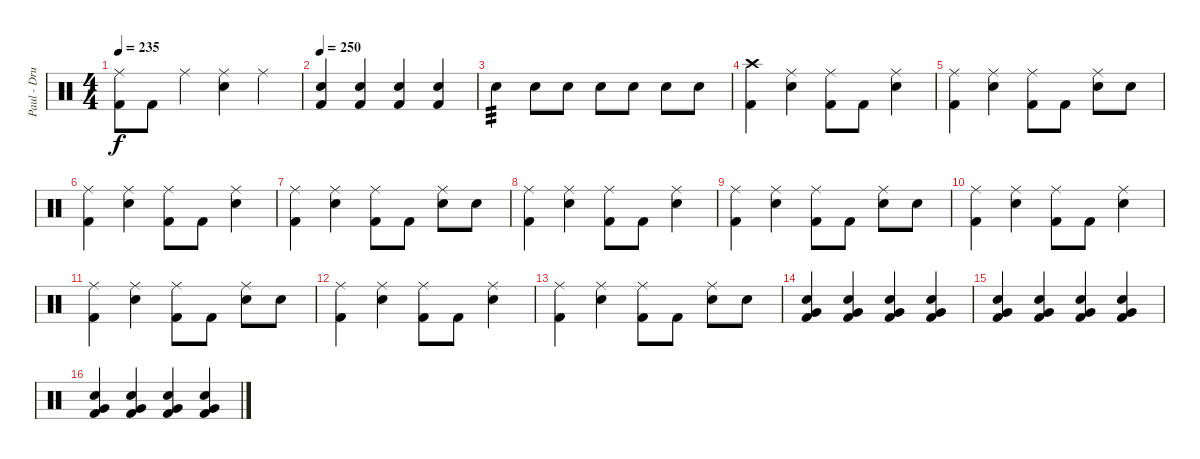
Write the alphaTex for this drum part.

\track ("Paul - Drums" "Paul - Dru") {instrument percussion}
\staff {score}
\articulation defaults
\ts (4 4)
\tempo 235
\clef neutral
\ks c
("Ride (middle)" "Kick (hit) 2").8{dy f} "Kick (hit) 2".8 "Ride (middle)".4 ("Ride (middle)" "Electric Snare (hit)").4 "Ride (middle)".4 |
\tempo 250
("Electric Snare (hit)" "Kick (hit) 2").4 ("Electric Snare (hit)" "Kick (hit) 2").4 ("Electric Snare (hit)" "Kick (hit) 2").4 ("Electric Snare (hit)" "Kick (hit) 2").4 |
"Electric Snare (hit)".4{tp 3} "Electric Snare (hit)".8 "Electric Snare (hit)".8 "Electric Snare (hit)".8 "Electric Snare (hit)".8 "Electric Snare (hit)".8 "Electric Snare (hit)".8 |
("Crash high (hit)" "Kick (hit) 2").4 ("Ride (middle)" "Electric Snare (hit)").4 ("Ride (middle)" "Kick (hit) 2").8 "Kick (hit) 2".8 ("Ride (middle)" "Electric Snare (hit)").4 |
("Ride (middle)" "Kick (hit) 2").4 ("Ride (middle)" "Electric Snare (hit)").4 ("Ride (middle)" "Kick (hit) 2").8 "Kick (hit) 2".8 ("Ride (middle)" "Electric Snare (hit)").8 "Electric Snare (hit)".8 |
("Ride (middle)" "Kick (hit) 2").4 ("Ride (middle)" "Electric Snare (hit)").4 ("Ride (middle)" "Kick (hit) 2").8 "Kick (hit) 2".8 ("Ride (middle)" "Electric Snare (hit)").4 |
("Ride (middle)" "Kick (hit) 2").4 ("Ride (middle)" "Electric Snare (hit)").4 ("Ride (middle)" "Kick (hit) 2").8 "Kick (hit) 2".8 ("Ride (middle)" "Electric Snare (hit)").8 "Electric Snare (hit)".8 |
("Ride (middle)" "Kick (hit) 2").4 ("Ride (middle)" "Electric Snare (hit)").4 ("Ride (middle)" "Kick (hit) 2").8 "Kick (hit) 2".8 ("Ride (middle)" "Electric Snare (hit)").4 |
("Ride (middle)" "Kick (hit) 2").4 ("Ride (middle)" "Electric Snare (hit)").4 ("Ride (middle)" "Kick (hit) 2").8 "Kick (hit) 2".8 ("Ride (middle)" "Electric Snare (hit)").8 "Electric Snare (hit)".8 |
("Ride (middle)" "Kick (hit) 2").4 ("Ride (middle)" "Electric Snare (hit)").4 ("Ride (middle)" "Kick (hit) 2").8 "Kick (hit) 2".8 ("Ride (middle)" "Electric Snare (hit)").4 |
("Ride (middle)" "Kick (hit) 2").4 ("Ride (middle)" "Electric Snare (hit)").4 ("Ride (middle)" "Kick (hit) 2").8 "Kick (hit) 2".8 ("Ride (middle)" "Electric Snare (hit)").8 "Electric Snare (hit)".8 |
("Ride (middle)" "Kick (hit) 2").4 ("Ride (middle)" "Electric Snare (hit)").4 ("Ride (middle)" "Kick (hit) 2").8 "Kick (hit) 2".8 ("Ride (middle)" "Electric Snare (hit)").4 |
("Ride (middle)" "Kick (hit) 2").4 ("Ride (middle)" "Electric Snare (hit)").4 ("Ride (middle)" "Kick (hit) 2").8 "Kick (hit) 2".8 ("Ride (middle)" "Electric Snare (hit)").8 "Electric Snare (hit)".8 |
("Very Low Tom (hit)" "Electric Snare (hit)" "Kick (hit) 2").4 ("Very Low Tom (hit)" "Electric Snare (hit)" "Kick (hit) 2").4 ("Very Low Tom (hit)" "Electric Snare (hit)" "Kick (hit) 2").4 ("Very Low Tom (hit)" "Electric Snare (hit)" "Kick (hit) 2").4 |
("Very Low Tom (hit)" "Electric Snare (hit)" "Kick (hit) 2").4 ("Very Low Tom (hit)" "Electric Snare (hit)" "Kick (hit) 2").4 ("Very Low Tom (hit)" "Electric Snare (hit)" "Kick (hit) 2").4 ("Very Low Tom (hit)" "Electric Snare (hit)" "Kick (hit) 2").4 |
("Very Low Tom (hit)" "Electric Snare (hit)" "Kick (hit) 2").4 ("Very Low Tom (hit)" "Electric Snare (hit)" "Kick (hit) 2").4 ("Very Low Tom (hit)" "Electric Snare (hit)" "Kick (hit) 2").4 ("Very Low Tom (hit)" "Electric Snare (hit)" "Kick (hit) 2").4
